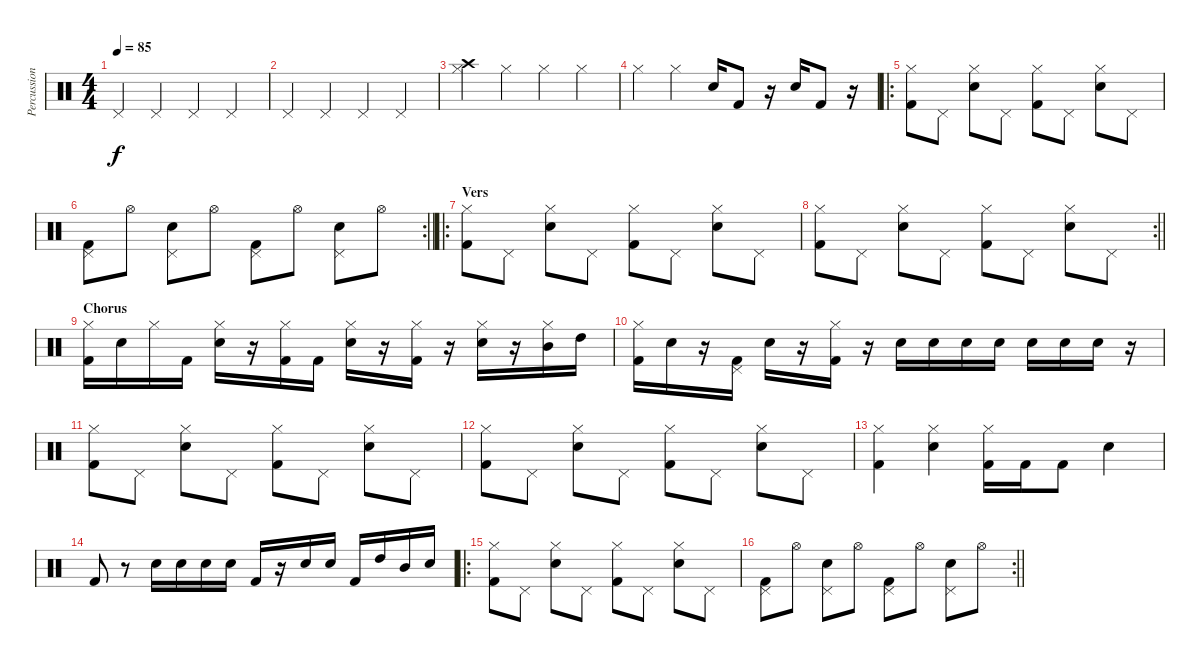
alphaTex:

\track ("Percussion" "Percussion") {instrument percussion}
\staff {score}
\articulation defaults
\ts (4 4)
\tempo 85
\clef neutral
\ks c "Pedal Hi-Hat (hit)".4{dy f} "Pedal Hi-Hat (hit)".4 "Pedal Hi-Hat (hit)".4 "Pedal Hi-Hat (hit)".4
|
"Pedal Hi-Hat (hit)".4 "Pedal Hi-Hat (hit)".4 "Pedal Hi-Hat (hit)".4 "Pedal Hi-Hat (hit)".4 |
("Crash high (hit)" "Hi-Hat (closed)").4 "Hi-Hat (closed)".4 "Hi-Hat (closed)".4 "Hi-Hat (closed)".4 |
"Hi-Hat (closed)".4 "Hi-Hat (closed)".4 "Snare (hit) 2".16 "Kick (hit) 2".8 r.16 "Snare (hit) 2".16 "Kick (hit) 2".8 r.16 |
\ro
("Hi-Hat (closed)" "Kick (hit) 2").8 "Pedal Hi-Hat (hit)".8 ("Hi-Hat (closed)" "Snare (hit) 2").8 "Pedal Hi-Hat (hit)".8 ("Hi-Hat (closed)" "Kick (hit) 2").8 "Pedal Hi-Hat (hit)".8 ("Hi-Hat (closed)" "Snare (hit) 2").8 "Pedal Hi-Hat (hit)".8 |
\rc 2
\barLineRight lightlight
("Pedal Hi-Hat (hit)" "Kick (hit) 2").8 "Hi-Hat (open)".8 ("Pedal Hi-Hat (hit)" "Snare (hit) 2").8 "Hi-Hat (open)".8 ("Pedal Hi-Hat (hit)" "Kick (hit) 2").8 "Hi-Hat (open)".8 ("Pedal Hi-Hat (hit)" "Snare (hit) 2").8 "Hi-Hat (open)".8 |
\ro
\section ("" "Vers")
("Hi-Hat (closed)" "Kick (hit) 2").8 "Pedal Hi-Hat (hit)".8 ("Hi-Hat (closed)" "Snare (hit) 2").8 "Pedal Hi-Hat (hit)".8 ("Hi-Hat (closed)" "Kick (hit) 2").8 "Pedal Hi-Hat (hit)".8 ("Hi-Hat (closed)" "Snare (hit) 2").8 "Pedal Hi-Hat (hit)".8 |
\rc 2
\barLineRight lightlight
("Hi-Hat (closed)" "Kick (hit) 2").8 "Pedal Hi-Hat (hit)".8 ("Hi-Hat (closed)" "Snare (hit) 2").8 "Pedal Hi-Hat (hit)".8 ("Hi-Hat (closed)" "Kick (hit) 2").8 "Pedal Hi-Hat (hit)".8 ("Hi-Hat (closed)" "Snare (hit) 2").8 "Pedal Hi-Hat (hit)".8 |
\section ("" "Chorus")
("Hi-Hat (closed)" "Kick (hit) 2").16 "Snare (hit) 2".16 "Hi-Hat (closed)".16 "Kick (hit) 2".16 ("Hi-Hat (closed)" "Snare (hit) 2").16 r.16 ("Hi-Hat (closed)" "Kick (hit) 2").16 "Kick (hit) 2".16 ("Hi-Hat (closed)" "Snare (hit) 2").16 r.16 ("Hi-Hat (closed)" "Kick (hit) 2").16 r.16 ("Hi-Hat (closed)" "Snare (hit) 2").16 r.16 ("Hi-Hat (closed)" "Mid Tom (hit)").16 "High Tom (hit)".16 |
("Hi-Hat (closed)" "Kick (hit) 2").16 "Snare (hit) 2".16 r.16 ("Pedal Hi-Hat (hit)" "Kick (hit) 2").16 "Snare (hit) 2".16 r.16 ("Hi-Hat (closed)" "Kick (hit) 2").16 r.16 "Snare (hit) 2".16 "Snare (hit) 2".16 "Snare (hit) 2".16 "Snare (hit) 2".16 "Snare (hit) 2".16 "Snare (hit) 2".16 "Snare (hit) 2".16 r.16 |
("Hi-Hat (closed)" "Kick (hit) 2").8 "Pedal Hi-Hat (hit)".8 ("Hi-Hat (closed)" "Snare (hit) 2").8 "Pedal Hi-Hat (hit)".8 ("Hi-Hat (closed)" "Kick (hit) 2").8 "Pedal Hi-Hat (hit)".8 ("Hi-Hat (closed)" "Snare (hit) 2").8 "Pedal Hi-Hat (hit)".8 |
("Hi-Hat (closed)" "Kick (hit) 2").8 "Pedal Hi-Hat (hit)".8 ("Hi-Hat (closed)" "Snare (hit) 2").8 "Pedal Hi-Hat (hit)".8 ("Hi-Hat (closed)" "Kick (hit) 2").8 "Pedal Hi-Hat (hit)".8 ("Hi-Hat (closed)" "Snare (hit) 2").8 "Pedal Hi-Hat (hit)".8 |
("Kick (hit) 2" "Hi-Hat (closed)").4 ("Snare (hit) 2" "Hi-Hat (closed)").4 ("Kick (hit) 2" "Hi-Hat (closed)").16 "Kick (hit) 2".16 "Kick (hit) 2".8 "Snare (hit) 2".4 |
"Kick (hit) 2".8 r.8 "Snare (hit) 2".16 "Snare (hit) 2".16 "Snare (hit) 2".16 "Snare (hit) 2".16 "Kick (hit) 2".16 r.16 "Snare (hit) 2".16 "Snare (hit) 2".16 "Kick (hit) 2".16 "High Tom (hit)".16 "Mid Tom (hit)".16 "Snare (hit) 2".16 |
\ro
("Hi-Hat (closed)" "Kick (hit) 2").8 "Pedal Hi-Hat (hit)".8 ("Hi-Hat (closed)" "Snare (hit) 2").8 "Pedal Hi-Hat (hit)".8 ("Hi-Hat (closed)" "Kick (hit) 2").8 "Pedal Hi-Hat (hit)".8 ("Hi-Hat (closed)" "Snare (hit) 2").8 "Pedal Hi-Hat (hit)".8 |
\rc 2
\barLineRight lightlight
("Pedal Hi-Hat (hit)" "Kick (hit) 2").8 "Hi-Hat (open)".8 ("Pedal Hi-Hat (hit)" "Snare (hit) 2").8 "Hi-Hat (open)".8 ("Pedal Hi-Hat (hit)" "Kick (hit) 2").8 "Hi-Hat (open)".8 ("Pedal Hi-Hat (hit)" "Snare (hit) 2").8 "Hi-Hat (open)".8
